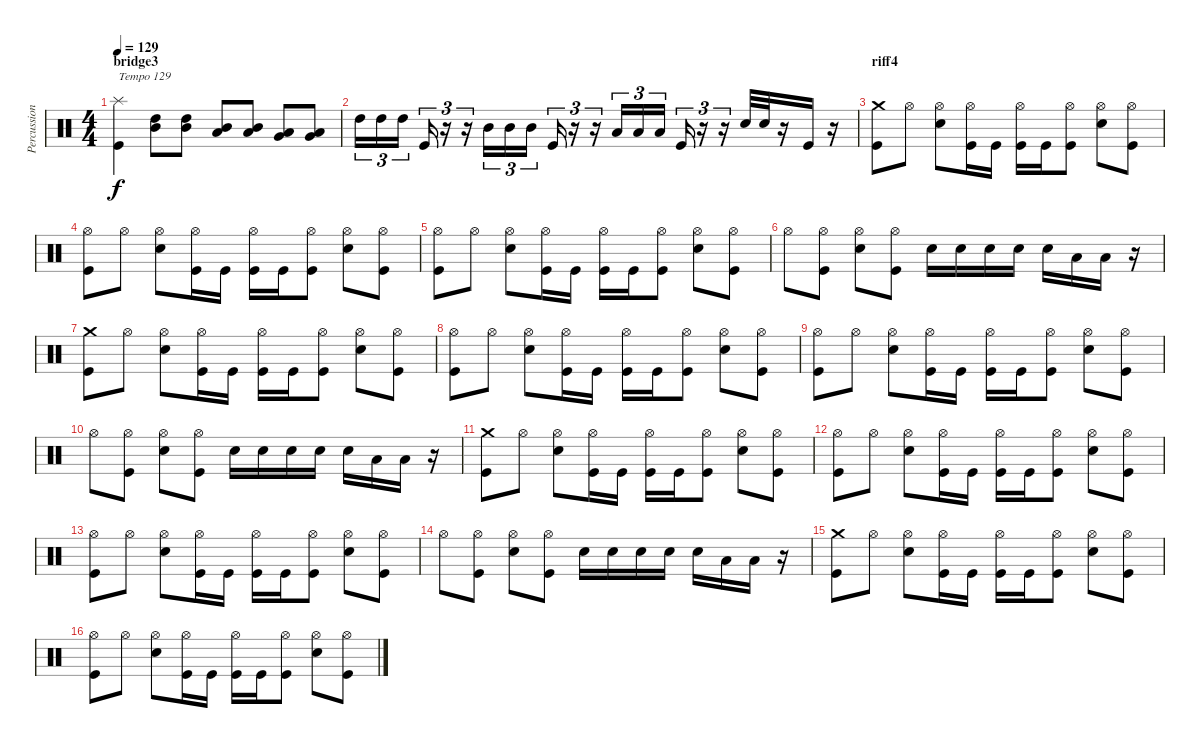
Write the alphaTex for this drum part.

\track ("Percussion" "Percussion") {instrument percussion}
\staff {score}
\articulation defaults
\ts (4 4)
\section ("" "bridge3")
\tempo 129
\clef neutral
\ks c
("Kick (hit)" "Splash (hit)").4{txt "Tempo 129" dy f} ("High Tom (hit)" "Mid Tom (hit)").8 ("High Tom (hit)" "Mid Tom (hit)").8 ("Mid Tom (hit)" "Low Tom (hit)").8 ("Mid Tom (hit)" "Low Tom (hit)").8 ("Low Tom (hit)" "Very Low Tom (hit)").8 ("Low Tom (hit)" "Very Low Tom (hit)").8 |
"High Tom (hit)".16{tu (3 2)} "High Tom (hit)".16{tu (3 2)} "High Tom (hit)".16{tu (3 2)} "Kick (hit)".16{tu (3 2)} r.16{tu (3 2)} r.16{tu (3 2)} "Mid Tom (hit)".16{tu (3 2)} "Mid Tom (hit)".16{tu (3 2)} "Mid Tom (hit)".16{tu (3 2)} "Kick (hit)".16{tu (3 2)} r.16{tu (3 2)} r.16{tu (3 2)} "Low Tom (hit)".16{tu (3 2)} "Low Tom (hit)".16{tu (3 2)} "Low Tom (hit)".16{tu (3 2)} "Kick (hit)".16{tu (3 2)} r.16{tu (3 2)} r.16{tu (3 2)} "Snare (hit) 2".32 "Snare (hit) 2".32 r.16 "Kick (hit)".16 r.16 |
\section ("" "riff4")
("Kick (hit)" "Crash medium (hit)").8 "Hi-Hat (open)".8 ("Hi-Hat (open)" "Snare (hit) 2").8 ("Kick (hit)" "Hi-Hat (open)").16 "Kick (hit)".16 ("Kick (hit)" "Hi-Hat (open)").16 "Kick (hit)".16 ("Kick (hit)" "Hi-Hat (open)").8 ("Hi-Hat (open)" "Snare (hit) 2").8 ("Kick (hit)" "Hi-Hat (open)").8 |
("Kick (hit)" "Hi-Hat (open)").8 "Hi-Hat (open)".8 ("Hi-Hat (open)" "Snare (hit) 2").8 ("Kick (hit)" "Hi-Hat (open)").16 "Kick (hit)".16 ("Kick (hit)" "Hi-Hat (open)").16 "Kick (hit)".16 ("Kick (hit)" "Hi-Hat (open)").8 ("Hi-Hat (open)" "Snare (hit) 2").8 ("Kick (hit)" "Hi-Hat (open)").8 |
("Kick (hit)" "Hi-Hat (open)").8 "Hi-Hat (open)".8 ("Hi-Hat (open)" "Snare (hit) 2").8 ("Kick (hit)" "Hi-Hat (open)").16 "Kick (hit)".16 ("Kick (hit)" "Hi-Hat (open)").16 "Kick (hit)".16 ("Kick (hit)" "Hi-Hat (open)").8 ("Hi-Hat (open)" "Snare (hit) 2").8 ("Kick (hit)" "Hi-Hat (open)").8 |
"Hi-Hat (open)".8 ("Kick (hit)" "Hi-Hat (open)").8 ("Hi-Hat (open)" "Snare (hit) 2").8 ("Kick (hit)" "Hi-Hat (open)").8 "Snare (hit) 2".16 "Snare (hit) 2".16 "Snare (hit) 2".16 "Snare (hit) 2".16 "Snare (hit) 2".16 "Low Tom (hit)".16 "Low Tom (hit)".16 r.16 |
("Kick (hit)" "Crash medium (hit)").8 "Hi-Hat (open)".8 ("Hi-Hat (open)" "Snare (hit) 2").8 ("Kick (hit)" "Hi-Hat (open)").16 "Kick (hit)".16 ("Kick (hit)" "Hi-Hat (open)").16 "Kick (hit)".16 ("Kick (hit)" "Hi-Hat (open)").8 ("Hi-Hat (open)" "Snare (hit) 2").8 ("Kick (hit)" "Hi-Hat (open)").8 |
("Kick (hit)" "Hi-Hat (open)").8 "Hi-Hat (open)".8 ("Hi-Hat (open)" "Snare (hit) 2").8 ("Kick (hit)" "Hi-Hat (open)").16 "Kick (hit)".16 ("Kick (hit)" "Hi-Hat (open)").16 "Kick (hit)".16 ("Kick (hit)" "Hi-Hat (open)").8 ("Hi-Hat (open)" "Snare (hit) 2").8 ("Kick (hit)" "Hi-Hat (open)").8 |
("Kick (hit)" "Hi-Hat (open)").8 "Hi-Hat (open)".8 ("Hi-Hat (open)" "Snare (hit) 2").8 ("Kick (hit)" "Hi-Hat (open)").16 "Kick (hit)".16 ("Kick (hit)" "Hi-Hat (open)").16 "Kick (hit)".16 ("Kick (hit)" "Hi-Hat (open)").8 ("Hi-Hat (open)" "Snare (hit) 2").8 ("Kick (hit)" "Hi-Hat (open)").8 |
"Hi-Hat (open)".8 ("Kick (hit)" "Hi-Hat (open)").8 ("Hi-Hat (open)" "Snare (hit) 2").8 ("Kick (hit)" "Hi-Hat (open)").8 "Snare (hit) 2".16 "Snare (hit) 2".16 "Snare (hit) 2".16 "Snare (hit) 2".16 "Snare (hit) 2".16 "Low Tom (hit)".16 "Low Tom (hit)".16 r.16 |
("Kick (hit)" "Crash medium (hit)").8 "Hi-Hat (open)".8 ("Hi-Hat (open)" "Snare (hit) 2").8 ("Kick (hit)" "Hi-Hat (open)").16 "Kick (hit)".16 ("Kick (hit)" "Hi-Hat (open)").16 "Kick (hit)".16 ("Kick (hit)" "Hi-Hat (open)").8 ("Hi-Hat (open)" "Snare (hit) 2").8 ("Kick (hit)" "Hi-Hat (open)").8 |
("Kick (hit)" "Hi-Hat (open)").8 "Hi-Hat (open)".8 ("Hi-Hat (open)" "Snare (hit) 2").8 ("Kick (hit)" "Hi-Hat (open)").16 "Kick (hit)".16 ("Kick (hit)" "Hi-Hat (open)").16 "Kick (hit)".16 ("Kick (hit)" "Hi-Hat (open)").8 ("Hi-Hat (open)" "Snare (hit) 2").8 ("Kick (hit)" "Hi-Hat (open)").8 |
("Kick (hit)" "Hi-Hat (open)").8 "Hi-Hat (open)".8 ("Hi-Hat (open)" "Snare (hit) 2").8 ("Kick (hit)" "Hi-Hat (open)").16 "Kick (hit)".16 ("Kick (hit)" "Hi-Hat (open)").16 "Kick (hit)".16 ("Kick (hit)" "Hi-Hat (open)").8 ("Hi-Hat (open)" "Snare (hit) 2").8 ("Kick (hit)" "Hi-Hat (open)").8 |
"Hi-Hat (open)".8 ("Kick (hit)" "Hi-Hat (open)").8 ("Hi-Hat (open)" "Snare (hit) 2").8 ("Kick (hit)" "Hi-Hat (open)").8 "Snare (hit) 2".16 "Snare (hit) 2".16 "Snare (hit) 2".16 "Snare (hit) 2".16 "Snare (hit) 2".16 "Low Tom (hit)".16 "Low Tom (hit)".16 r.16 |
("Kick (hit)" "Crash medium (hit)").8 "Hi-Hat (open)".8 ("Hi-Hat (open)" "Snare (hit) 2").8 ("Kick (hit)" "Hi-Hat (open)").16 "Kick (hit)".16 ("Kick (hit)" "Hi-Hat (open)").16 "Kick (hit)".16 ("Kick (hit)" "Hi-Hat (open)").8 ("Hi-Hat (open)" "Snare (hit) 2").8 ("Kick (hit)" "Hi-Hat (open)").8 |
("Kick (hit)" "Hi-Hat (open)").8 "Hi-Hat (open)".8 ("Hi-Hat (open)" "Snare (hit) 2").8 ("Kick (hit)" "Hi-Hat (open)").16 "Kick (hit)".16 ("Kick (hit)" "Hi-Hat (open)").16 "Kick (hit)".16 ("Kick (hit)" "Hi-Hat (open)").8 ("Hi-Hat (open)" "Snare (hit) 2").8 ("Kick (hit)" "Hi-Hat (open)").8
